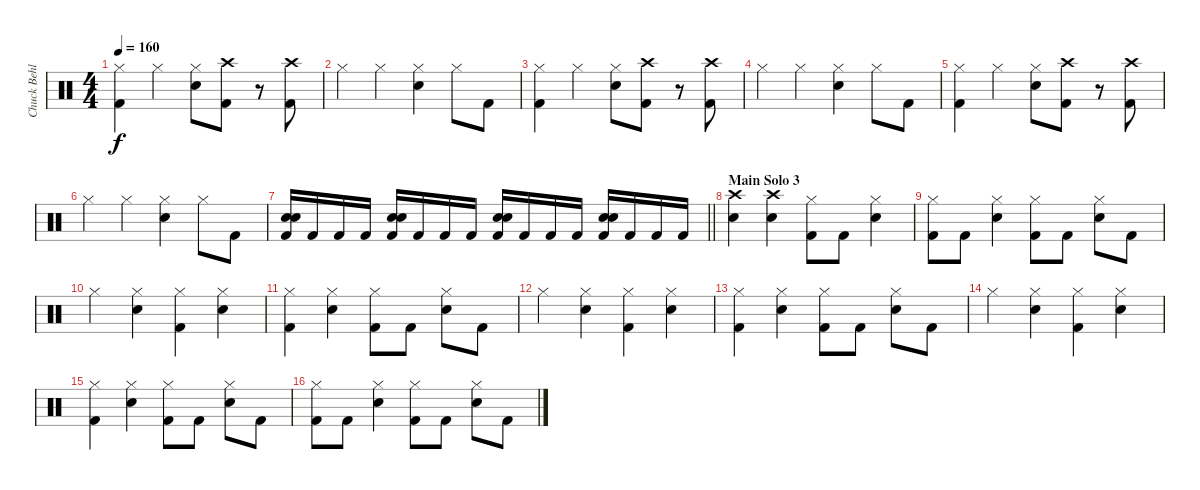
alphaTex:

\track ("Chuck Behler" "Chuck Behl") {instrument percussion}
\staff {score}
\articulation defaults
\ts (4 4)
\tempo 160
\clef neutral
\ks c
("Hi-Hat (closed)" "Kick (hit) 2").4{dy f} "Hi-Hat (closed)".4 ("Hi-Hat (closed)" "Snare (hit) 2").8 ("Crash high (hit)" "Kick (hit) 2").8 r.8 ("Crash high (hit)" "Kick (hit) 2").8 |
"Hi-Hat (closed)".4 "Hi-Hat (closed)".4 ("Hi-Hat (closed)" "Snare (hit) 2").4 "Hi-Hat (closed)".8 "Kick (hit) 2".8 |
("Hi-Hat (closed)" "Kick (hit) 2").4 "Hi-Hat (closed)".4 ("Hi-Hat (closed)" "Snare (hit) 2").8 ("Crash high (hit)" "Kick (hit) 2").8 r.8 ("Crash high (hit)" "Kick (hit) 2").8 |
"Hi-Hat (closed)".4 "Hi-Hat (closed)".4 ("Hi-Hat (closed)" "Snare (hit) 2").4 "Hi-Hat (closed)".8 "Kick (hit) 2".8 |
("Hi-Hat (closed)" "Kick (hit) 2").4 "Hi-Hat (closed)".4 ("Hi-Hat (closed)" "Snare (hit) 2").8 ("Crash high (hit)" "Kick (hit) 2").8 r.8 ("Crash high (hit)" "Kick (hit) 2").8 |
"Hi-Hat (closed)".4 "Hi-Hat (closed)".4 ("Hi-Hat (closed)" "Snare (hit) 2").4 "Hi-Hat (closed)".8 "Kick (hit) 2".8 |
\barLineRight lightlight
("Snare (hit) 2" "Snare (hit) 2" "Kick (hit) 2").16 "Kick (hit) 2".16 "Kick (hit) 2".16 "Kick (hit) 2".16 ("Snare (hit) 2" "Snare (hit) 2" "Kick (hit) 2").16 "Kick (hit) 2".16 "Kick (hit) 2".16 "Kick (hit) 2".16 ("Snare (hit) 2" "Snare (hit) 2" "Kick (hit) 2").16 "Kick (hit) 2".16 "Kick (hit) 2".16 "Kick (hit) 2".16 ("Snare (hit) 2" "Snare (hit) 2" "Kick (hit) 2").16 "Kick (hit) 2".16 "Kick (hit) 2".16 "Kick (hit) 2".16 |
\section ("" "Main Solo 3")
("Crash high (hit)" "Snare (hit) 2").4 ("Crash high (hit)" "Snare (hit) 2").4 ("Hi-Hat (closed)" "Kick (hit) 2").8 "Kick (hit) 2".8 ("Hi-Hat (closed)" "Snare (hit) 2").4 |
("Hi-Hat (closed)" "Kick (hit) 2").8 "Kick (hit) 2".8 ("Hi-Hat (closed)" "Snare (hit) 2").4 ("Hi-Hat (closed)" "Kick (hit) 2").8 "Kick (hit) 2".8 ("Hi-Hat (closed)" "Snare (hit) 2").8 "Kick (hit) 2".8 |
"Hi-Hat (closed)".4 ("Hi-Hat (closed)" "Snare (hit) 2").4 ("Hi-Hat (closed)" "Kick (hit) 2").4 ("Hi-Hat (closed)" "Snare (hit) 2").4 |
("Hi-Hat (closed)" "Kick (hit) 2").4 ("Hi-Hat (closed)" "Snare (hit) 2").4 ("Hi-Hat (closed)" "Kick (hit) 2").8 "Kick (hit) 2".8 ("Hi-Hat (closed)" "Snare (hit) 2").8 "Kick (hit) 2".8 |
"Hi-Hat (closed)".4 ("Hi-Hat (closed)" "Snare (hit) 2").4 ("Hi-Hat (closed)" "Kick (hit) 2").4 ("Hi-Hat (closed)" "Snare (hit) 2").4 |
("Hi-Hat (closed)" "Kick (hit) 2").4 ("Hi-Hat (closed)" "Snare (hit) 2").4 ("Hi-Hat (closed)" "Kick (hit) 2").8 "Kick (hit) 2".8 ("Hi-Hat (closed)" "Snare (hit) 2").8 "Kick (hit) 2".8 |
"Hi-Hat (closed)".4 ("Hi-Hat (closed)" "Snare (hit) 2").4 ("Hi-Hat (closed)" "Kick (hit) 2").4 ("Hi-Hat (closed)" "Snare (hit) 2").4 |
("Hi-Hat (closed)" "Kick (hit) 2").4 ("Hi-Hat (closed)" "Snare (hit) 2").4 ("Hi-Hat (closed)" "Kick (hit) 2").8 "Kick (hit) 2".8 ("Hi-Hat (closed)" "Snare (hit) 2").8 "Kick (hit) 2".8 |
("Hi-Hat (closed)" "Kick (hit) 2").8 "Kick (hit) 2".8 ("Hi-Hat (closed)" "Snare (hit) 2").4 ("Hi-Hat (closed)" "Kick (hit) 2").8 "Kick (hit) 2".8 ("Hi-Hat (closed)" "Snare (hit) 2").8 "Kick (hit) 2".8
